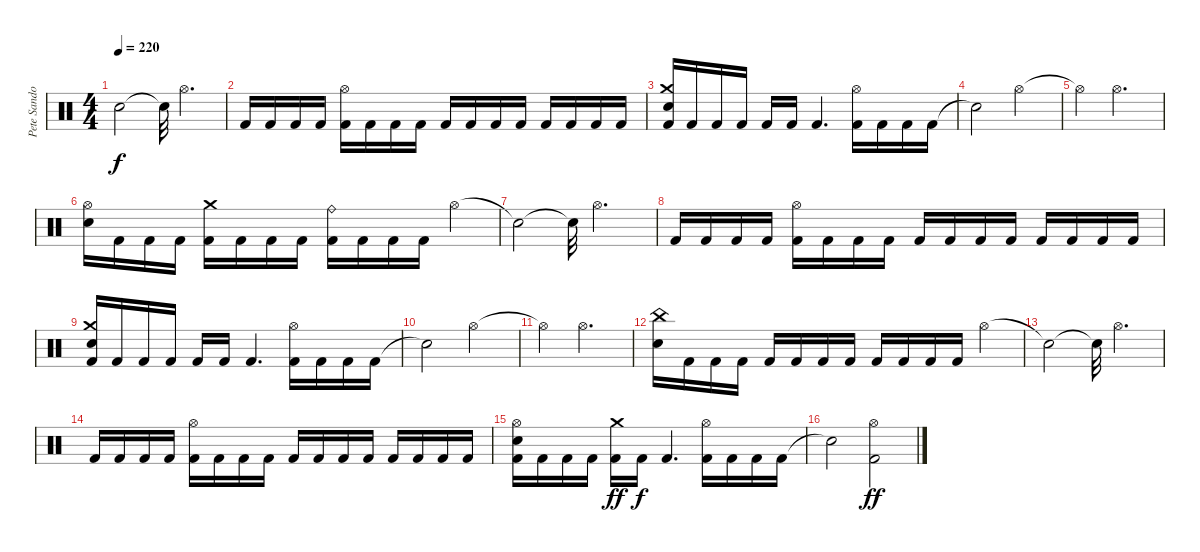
\track ("Pete Sandoval" "Pete Sando") {instrument percussion}
\staff {score}
\articulation defaults
\ts (4 4)
\tempo 220
\clef neutral
\ks c "Snare (hit)"{t}.2{dy f} "Snare (hit)"{t}.32 "Hi-Hat (open)".4{d}
|
"Kick (hit) 2".16 "Kick (hit) 2".16 "Kick (hit) 2".16 "Kick (hit) 2".16 ("Hi-Hat (open)" "Kick (hit) 2").16 "Kick (hit) 2".16 "Kick (hit) 2".16 "Kick (hit) 2".16 "Kick (hit) 2".16 "Kick (hit) 2".16 "Kick (hit) 2".16 "Kick (hit) 2".16 "Kick (hit) 2".16 "Kick (hit) 2".16 "Kick (hit) 2".16 "Kick (hit) 2".16 |
("Crash medium (hit)" "Electric Snare (hit)" "Kick (hit) 2").16 "Kick (hit) 2".16 "Kick (hit) 2".16 "Kick (hit) 2".16 "Kick (hit) 2".16 "Kick (hit) 2".16 "Kick (hit) 2".4{d} ("Hi-Hat (open)" "Kick (hit) 2").16 "Kick (hit) 2".16 "Kick (hit) 2".16 "Kick (hit) 2".16 |
"Snare (hit)"{t}.2 "Hi-Hat (open)".2 |
"Hi-Hat (open)"{t}.4 "Hi-Hat (open)".2{d} |
("Hi-Hat (open)" "Electric Snare (hit)").16 "Kick (hit) 2".16 "Kick (hit) 2".16 "Kick (hit) 2".16 ("Crash medium (hit)" "Kick (hit) 2").16 "Kick (hit) 2".16 "Kick (hit) 2".16 "Kick (hit) 2".16 ("Ride (bell)" "Kick (hit) 2").16 "Kick (hit) 2".16 "Kick (hit) 2".16 "Kick (hit) 2".16 "Hi-Hat (open)".4 |
"Snare (hit)"{t}.2 "Snare (hit)"{t}.32 "Hi-Hat (open)".2{d} |
"Kick (hit) 2".16 "Kick (hit) 2".16 "Kick (hit) 2".16 "Kick (hit) 2".16 ("Hi-Hat (open)" "Kick (hit) 2").16 "Kick (hit) 2".16 "Kick (hit) 2".16 "Kick (hit) 2".16 "Kick (hit) 2".16 "Kick (hit) 2".16 "Kick (hit) 2".16 "Kick (hit) 2".16 "Kick (hit) 2".16 "Kick (hit) 2".16 "Kick (hit) 2".16 "Kick (hit) 2".16 |
("Crash medium (hit)" "Electric Snare (hit)" "Kick (hit) 2").16 "Kick (hit) 2".16 "Kick (hit) 2".16 "Kick (hit) 2".16 "Kick (hit) 2".16 "Kick (hit) 2".16 "Kick (hit) 2".4{d} ("Hi-Hat (open)" "Kick (hit) 2").16 "Kick (hit) 2".16 "Kick (hit) 2".16 "Kick (hit) 2".16 |
"Snare (hit)"{t}.2 "Hi-Hat (open)".2 |
"Hi-Hat (open)"{t}.4 "Hi-Hat (open)".2{d} |
("China (hit)" "Electric Snare (hit)").16 "Kick (hit) 2".16 "Kick (hit) 2".16 "Kick (hit) 2".16 "Kick (hit) 2".16 "Kick (hit) 2".16 "Kick (hit) 2".16 "Kick (hit) 2".16 "Kick (hit) 2".16 "Kick (hit) 2".16 "Kick (hit) 2".16 "Kick (hit) 2".16 "Hi-Hat (open)".4 |
"Snare (hit)"{t}.2 "Snare (hit)"{t}.32 "Hi-Hat (open)".4{d} |
"Kick (hit) 2".16 "Kick (hit) 2".16 "Kick (hit) 2".16 "Kick (hit) 2".16 ("Hi-Hat (open)" "Kick (hit) 2").16 "Kick (hit) 2".16 "Kick (hit) 2".16 "Kick (hit) 2".16 "Kick (hit) 2".16 "Kick (hit) 2".16 "Kick (hit) 2".16 "Kick (hit) 2".16 "Kick (hit) 2".16 "Kick (hit) 2".16 "Kick (hit) 2".16 "Kick (hit) 2".16 |
("Hi-Hat (open)" "Electric Snare (hit)" "Kick (hit) 2").16 "Kick (hit) 2".16 "Kick (hit) 2".16 "Kick (hit) 2".16 ("Crash medium (hit)" "Kick (hit) 2").16{dy ff} "Kick (hit) 2".16{dy f} "Kick (hit) 2".4{d} ("Hi-Hat (open)" "Kick (hit) 2").16 "Kick (hit) 2".16 "Kick (hit) 2".16 "Kick (hit) 2".16 |
"Snare (hit)"{t}.2 ("Hi-Hat (open)" "Kick (hit) 2").2{dy ff}
